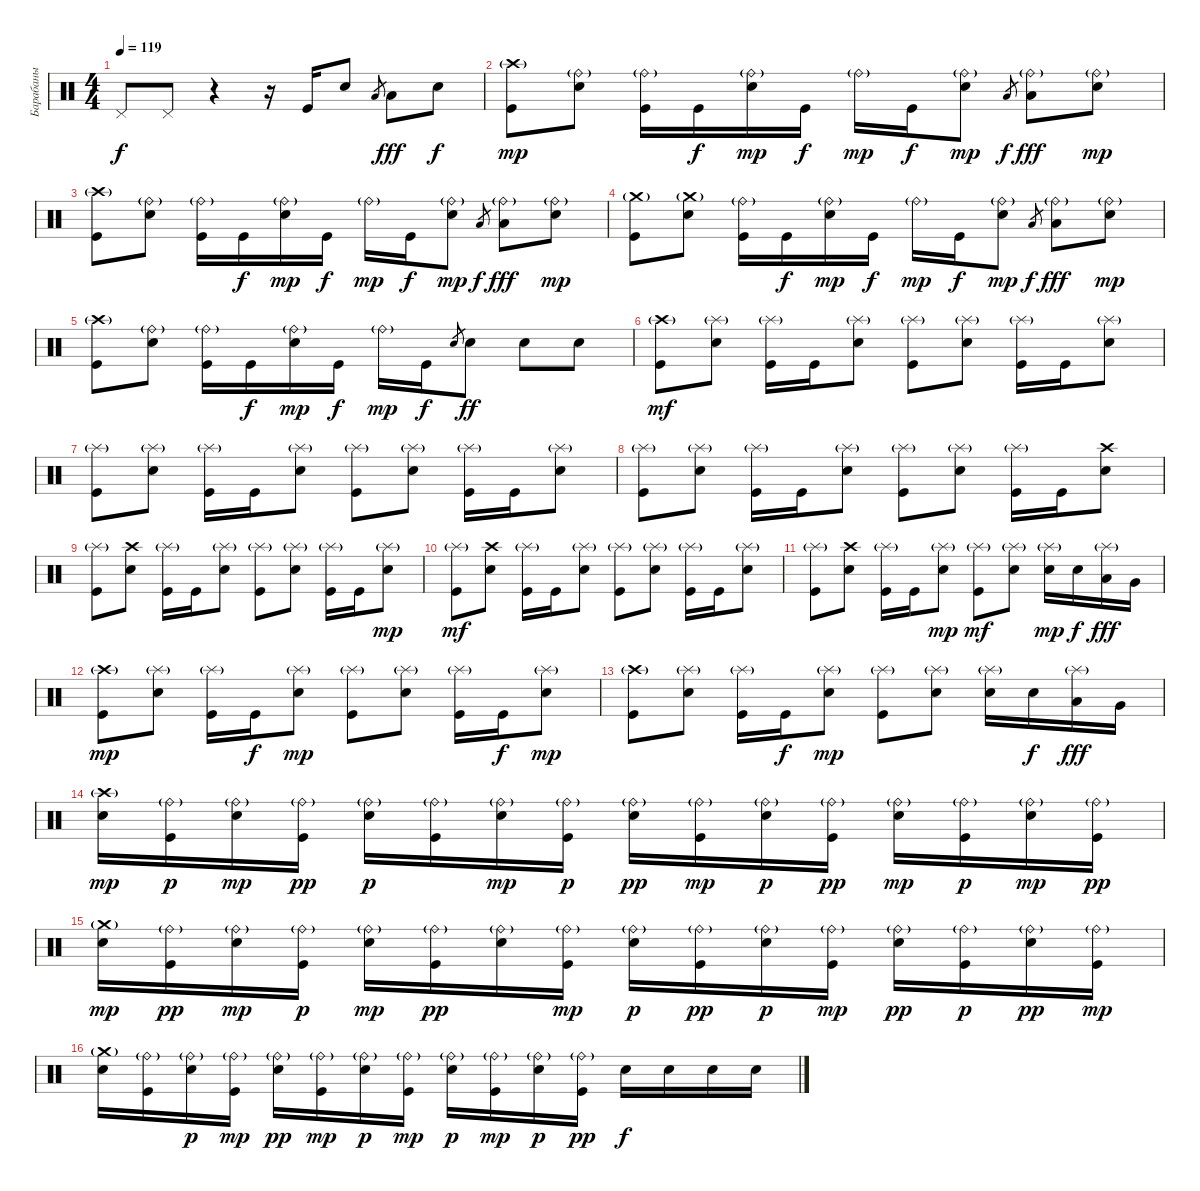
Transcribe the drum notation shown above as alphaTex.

\track ("Барабаны" "Барабаны") {instrument percussion}
\staff {score}
\articulation defaults
\ts (4 4)
\tempo 119
\clef neutral
\ks c "Pedal Hi-Hat (hit)".8{dy f} "Pedal Hi-Hat (hit)".8
r.4 r.16 "Kick (hit)".16 "Electric Snare (hit)".8 "Low Tom (hit)".8{gr} "Low Tom (hit)".8{dy fff} "Electric Snare (hit)".8{dy f} |
("Crash high (hit)"{g} "Kick (hit)").8{dy mp} ("Ride (bell)"{g} "Electric Snare (hit)").8 ("Ride (bell)"{g} "Kick (hit)").16 "Kick (hit)".16{dy f} ("Ride (bell)"{g} "Electric Snare (hit)").16{dy mp} "Kick (hit)".16{dy f} "Ride (bell)"{g}.16{dy mp} "Kick (hit)".16{dy f} ("Ride (bell)"{g} "Electric Snare (hit)").8{dy mp} "Low Tom (hit)".8{gr dy f} ("Ride (bell)"{g} "Low Tom (hit)").8{dy fff} ("Ride (bell)"{g} "Electric Snare (hit)").8{dy mp} |
("Crash high (hit)"{g} "Kick (hit)").8 ("Ride (bell)"{g} "Electric Snare (hit)").8 ("Ride (bell)"{g} "Kick (hit)").16 "Kick (hit)".16{dy f} ("Ride (bell)"{g} "Electric Snare (hit)").16{dy mp} "Kick (hit)".16{dy f} "Ride (bell)"{g}.16{dy mp} "Kick (hit)".16{dy f} ("Ride (bell)"{g} "Electric Snare (hit)").8{dy mp} "Low Tom (hit)".8{gr dy f} ("Ride (bell)"{g} "Low Tom (hit)").8{dy fff} ("Ride (bell)"{g} "Electric Snare (hit)").8{dy mp} |
("Crash medium (hit)"{g} "Kick (hit)").8 ("Crash medium (hit)"{g} "Electric Snare (hit)").8 ("Ride (bell)"{g} "Kick (hit)").16 "Kick (hit)".16{dy f} ("Ride (bell)"{g} "Electric Snare (hit)").16{dy mp} "Kick (hit)".16{dy f} "Ride (bell)"{g}.16{dy mp} "Kick (hit)".16{dy f} ("Ride (bell)"{g} "Electric Snare (hit)").8{dy mp} "Low Tom (hit)".8{gr dy f} ("Ride (bell)"{g} "Low Tom (hit)").8{dy fff} ("Ride (bell)"{g} "Electric Snare (hit)").8{dy mp} |
("Crash high (hit)"{g} "Kick (hit)").8 ("Ride (bell)"{g} "Electric Snare (hit)").8 ("Ride (bell)"{g} "Kick (hit)").16 "Kick (hit)".16{dy f} ("Ride (bell)"{g} "Electric Snare (hit)").16{dy mp} "Kick (hit)".16{dy f} "Ride (bell)"{g}.16{dy mp} "Kick (hit)".16{dy f} "Electric Snare (hit)".8{gr} "Electric Snare (hit)".8{dy ff} "Electric Snare (hit)".8 "Electric Snare (hit)".8 |
("Crash high (hit)"{g} "Kick (hit)").8{dy mf} ("Splash (hit)"{g} "Electric Snare (hit)").8 ("Splash (hit)"{g} "Kick (hit)").16 "Kick (hit)".16 ("Splash (hit)"{g} "Electric Snare (hit)").8 ("Splash (hit)"{g} "Kick (hit)").8 ("Splash (hit)"{g} "Electric Snare (hit)").8 ("Splash (hit)"{g} "Kick (hit)").16 "Kick (hit)".16 ("Splash (hit)"{g} "Electric Snare (hit)").8 |
("Splash (hit)"{g} "Kick (hit)").8 ("Splash (hit)"{g} "Electric Snare (hit)").8 ("Splash (hit)"{g} "Kick (hit)").16 "Kick (hit)".16 ("Splash (hit)"{g} "Electric Snare (hit)").8 ("Splash (hit)"{g} "Kick (hit)").8 ("Splash (hit)"{g} "Electric Snare (hit)").8 ("Splash (hit)"{g} "Kick (hit)").16 "Kick (hit)".16 ("Splash (hit)"{g} "Electric Snare (hit)").8 |
("Splash (hit)"{g} "Kick (hit)").8 ("Splash (hit)"{g} "Electric Snare (hit)").8 ("Splash (hit)"{g} "Kick (hit)").16 "Kick (hit)".16 ("Splash (hit)"{g} "Electric Snare (hit)").8 ("Splash (hit)"{g} "Kick (hit)").8 ("Splash (hit)"{g} "Electric Snare (hit)").8 ("Splash (hit)"{g} "Kick (hit)").16 "Kick (hit)".16 ("Crash high (hit)" "Electric Snare (hit)").8 |
("Splash (hit)"{g} "Kick (hit)").8 ("Crash high (hit)" "Electric Snare (hit)").8 ("Splash (hit)"{g} "Kick (hit)").16 "Kick (hit)".16 ("Splash (hit)"{g} "Electric Snare (hit)").8 ("Splash (hit)"{g} "Kick (hit)").8 ("Splash (hit)"{g} "Electric Snare (hit)").8 ("Splash (hit)"{g} "Kick (hit)").16 "Kick (hit)".16 ("Splash (hit)"{g} "Electric Snare (hit)").8{dy mp} |
("Splash (hit)"{g} "Kick (hit)").8{dy mf} ("Crash high (hit)" "Electric Snare (hit)").8 ("Splash (hit)"{g} "Kick (hit)").16 "Kick (hit)".16 ("Splash (hit)"{g} "Electric Snare (hit)").8 ("Splash (hit)"{g} "Kick (hit)").8 ("Splash (hit)"{g} "Electric Snare (hit)").8 ("Splash (hit)"{g} "Kick (hit)").16 "Kick (hit)".16 ("Splash (hit)"{g} "Electric Snare (hit)").8 |
("Splash (hit)"{g} "Kick (hit)").8 ("Crash high (hit)" "Electric Snare (hit)").8 ("Splash (hit)"{g} "Kick (hit)").16 "Kick (hit)".16 ("Splash (hit)"{g} "Electric Snare (hit)").8{dy mp} ("Splash (hit)"{g} "Kick (hit)").8{dy mf} ("Splash (hit)"{g} "Electric Snare (hit)").8 ("Splash (hit)"{g} "Electric Snare (hit)").16{dy mp} "Electric Snare (hit)".16{dy f} ("Splash (hit)"{g} "Low Tom (hit)").16{dy fff} "Very Low Tom (hit)".16 |
("Crash high (hit)"{g} "Kick (hit)").8{dy mp} ("Splash (hit)"{g} "Electric Snare (hit)").8 ("Splash (hit)"{g} "Kick (hit)").16 "Kick (hit)".16{dy f} ("Splash (hit)"{g} "Electric Snare (hit)").8{dy mp} ("Splash (hit)"{g} "Kick (hit)").8 ("Splash (hit)"{g} "Electric Snare (hit)").8 ("Splash (hit)"{g} "Kick (hit)").16 "Kick (hit)".16{dy f} ("Splash (hit)"{g} "Electric Snare (hit)").8{dy mp} |
("Crash high (hit)"{g} "Kick (hit)").8 ("Splash (hit)"{g} "Electric Snare (hit)").8 ("Splash (hit)"{g} "Kick (hit)").16 "Kick (hit)".16{dy f} ("Splash (hit)"{g} "Electric Snare (hit)").8{dy mp} ("Splash (hit)"{g} "Kick (hit)").8 ("Splash (hit)"{g} "Electric Snare (hit)").8 ("Splash (hit)"{g} "Electric Snare (hit)").16 "Electric Snare (hit)".16{dy f} ("Splash (hit)"{g} "Low Tom (hit)").16{dy fff} "Very Low Tom (hit)".16 |
("Crash high (hit)"{g} "Electric Snare (hit)").16{dy mp} ("Ride (bell)"{g} "Kick (hit)").16{dy p} ("Ride (bell)"{g} "Electric Snare (hit)").16{dy mp} ("Ride (bell)"{g} "Kick (hit)").16{dy pp} ("Ride (bell)"{g} "Electric Snare (hit)").16{dy p} ("Ride (bell)"{g} "Kick (hit)").16 ("Ride (bell)"{g} "Electric Snare (hit)").16{dy mp} ("Ride (bell)"{g} "Kick (hit)").16{dy p} ("Ride (bell)"{g} "Electric Snare (hit)").16{dy pp} ("Ride (bell)"{g} "Kick (hit)").16{dy mp} ("Ride (bell)"{g} "Electric Snare (hit)").16{dy p} ("Ride (bell)"{g} "Kick (hit)").16{dy pp} ("Ride (bell)"{g} "Electric Snare (hit)").16{dy mp} ("Ride (bell)"{g} "Kick (hit)").16{dy p} ("Ride (bell)"{g} "Electric Snare (hit)").16{dy mp} ("Ride (bell)"{g} "Kick (hit)").16{dy pp} |
("Crash medium (hit)"{g} "Electric Snare (hit)").16{dy mp} ("Ride (bell)"{g} "Kick (hit)").16{dy pp} ("Ride (bell)"{g} "Electric Snare (hit)").16{dy mp} ("Ride (bell)"{g} "Kick (hit)").16{dy p} ("Ride (bell)"{g} "Electric Snare (hit)").16{dy mp} ("Ride (bell)"{g} "Kick (hit)").16{dy pp} ("Ride (bell)"{g} "Electric Snare (hit)").16 ("Ride (bell)"{g} "Kick (hit)").16{dy mp} ("Ride (bell)"{g} "Electric Snare (hit)").16{dy p} ("Ride (bell)"{g} "Kick (hit)").16{dy pp} ("Ride (bell)"{g} "Electric Snare (hit)").16{dy p} ("Ride (bell)"{g} "Kick (hit)").16{dy mp} ("Ride (bell)"{g} "Electric Snare (hit)").16{dy pp} ("Ride (bell)"{g} "Kick (hit)").16{dy p} ("Ride (bell)"{g} "Electric Snare (hit)").16{dy pp} ("Ride (bell)"{g} "Kick (hit)").16{dy mp} |
("Crash medium (hit)"{g} "Electric Snare (hit)").16 ("Ride (bell)"{g} "Kick (hit)").16 ("Ride (bell)"{g} "Electric Snare (hit)").16{dy p} ("Ride (bell)"{g} "Kick (hit)").16{dy mp} ("Ride (bell)"{g} "Electric Snare (hit)").16{dy pp} ("Ride (bell)"{g} "Kick (hit)").16{dy mp} ("Ride (bell)"{g} "Electric Snare (hit)").16{dy p} ("Ride (bell)"{g} "Kick (hit)").16{dy mp} ("Ride (bell)"{g} "Electric Snare (hit)").16{dy p} ("Ride (bell)"{g} "Kick (hit)").16{dy mp} ("Ride (bell)"{g} "Electric Snare (hit)").16{dy p} ("Ride (bell)"{g} "Kick (hit)").16{dy pp} "Electric Snare (hit)".16{dy f} "Electric Snare (hit)".16 "Electric Snare (hit)".16 "Electric Snare (hit)".16
